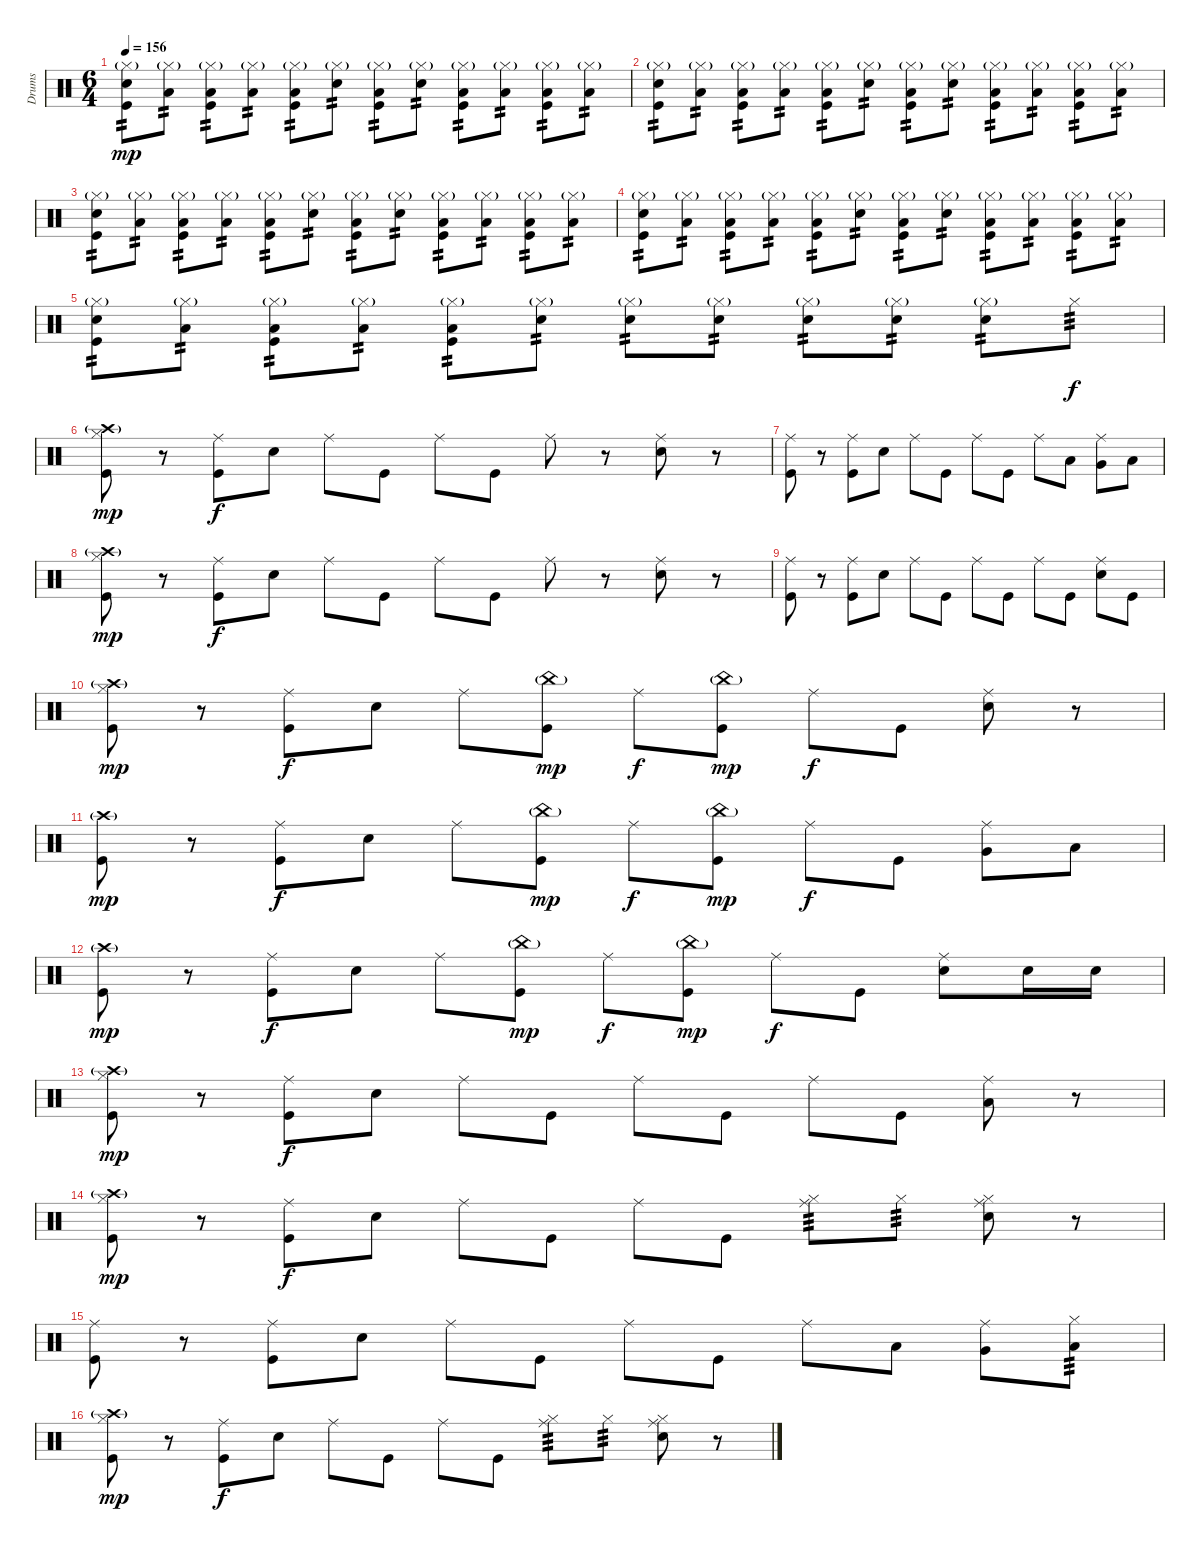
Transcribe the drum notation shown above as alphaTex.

\track ("Drums" "Drums") {instrument percussion}
\staff {score}
\articulation defaults
\ts (6 4)
\tempo 156
\clef neutral
\ks c
("Hi-Hat (closed)"{g} "Electric Snare (hit)" "Kick (hit)").8{tp 2 dy mp} ("Hi-Hat (closed)"{g} "Low Tom (hit)").8{tp 2} ("Hi-Hat (closed)"{g} "Low Tom (hit)" "Kick (hit)").8{tp 2} ("Hi-Hat (closed)"{g} "Low Tom (hit)").8{tp 2} ("Hi-Hat (closed)"{g} "Low Tom (hit)" "Kick (hit)").8{tp 2} ("Hi-Hat (closed)"{g} "Electric Snare (hit)").8{tp 2} ("Hi-Hat (closed)"{g} "Low Tom (hit)" "Kick (hit)").8{tp 2} ("Hi-Hat (closed)"{g} "Electric Snare (hit)").8{tp 2} ("Hi-Hat (closed)"{g} "Low Tom (hit)" "Kick (hit)").8{tp 2} ("Hi-Hat (closed)"{g} "Low Tom (hit)").8{tp 2} ("Hi-Hat (closed)"{g} "Low Tom (hit)" "Kick (hit)").8{tp 2} ("Hi-Hat (closed)"{g} "Low Tom (hit)").8{tp 2} |
("Hi-Hat (closed)"{g} "Electric Snare (hit)" "Kick (hit)").8{tp 2} ("Hi-Hat (closed)"{g} "Low Tom (hit)").8{tp 2} ("Hi-Hat (closed)"{g} "Low Tom (hit)" "Kick (hit)").8{tp 2} ("Hi-Hat (closed)"{g} "Low Tom (hit)").8{tp 2} ("Hi-Hat (closed)"{g} "Low Tom (hit)" "Kick (hit)").8{tp 2} ("Hi-Hat (closed)"{g} "Electric Snare (hit)").8{tp 2} ("Hi-Hat (closed)"{g} "Low Tom (hit)" "Kick (hit)").8{tp 2} ("Hi-Hat (closed)"{g} "Electric Snare (hit)").8{tp 2} ("Hi-Hat (closed)"{g} "Low Tom (hit)" "Kick (hit)").8{tp 2} ("Hi-Hat (closed)"{g} "Low Tom (hit)").8{tp 2} ("Hi-Hat (closed)"{g} "Low Tom (hit)" "Kick (hit)").8{tp 2} ("Hi-Hat (closed)"{g} "Low Tom (hit)").8{tp 2} |
("Hi-Hat (closed)"{g} "Electric Snare (hit)" "Kick (hit)").8{tp 2} ("Hi-Hat (closed)"{g} "Low Tom (hit)").8{tp 2} ("Hi-Hat (closed)"{g} "Low Tom (hit)" "Kick (hit)").8{tp 2} ("Hi-Hat (closed)"{g} "Low Tom (hit)").8{tp 2} ("Hi-Hat (closed)"{g} "Low Tom (hit)" "Kick (hit)").8{tp 2} ("Hi-Hat (closed)"{g} "Electric Snare (hit)").8{tp 2} ("Hi-Hat (closed)"{g} "Low Tom (hit)" "Kick (hit)").8{tp 2} ("Hi-Hat (closed)"{g} "Electric Snare (hit)").8{tp 2} ("Hi-Hat (closed)"{g} "Low Tom (hit)" "Kick (hit)").8{tp 2} ("Hi-Hat (closed)"{g} "Low Tom (hit)").8{tp 2} ("Hi-Hat (closed)"{g} "Low Tom (hit)" "Kick (hit)").8{tp 2} ("Hi-Hat (closed)"{g} "Low Tom (hit)").8{tp 2} |
("Hi-Hat (closed)"{g} "Electric Snare (hit)" "Kick (hit)").8{tp 2} ("Hi-Hat (closed)"{g} "Low Tom (hit)").8{tp 2} ("Hi-Hat (closed)"{g} "Low Tom (hit)" "Kick (hit)").8{tp 2} ("Hi-Hat (closed)"{g} "Low Tom (hit)").8{tp 2} ("Hi-Hat (closed)"{g} "Low Tom (hit)" "Kick (hit)").8{tp 2} ("Hi-Hat (closed)"{g} "Electric Snare (hit)").8{tp 2} ("Hi-Hat (closed)"{g} "Low Tom (hit)" "Kick (hit)").8{tp 2} ("Hi-Hat (closed)"{g} "Electric Snare (hit)").8{tp 2} ("Hi-Hat (closed)"{g} "Low Tom (hit)" "Kick (hit)").8{tp 2} ("Hi-Hat (closed)"{g} "Low Tom (hit)").8{tp 2} ("Hi-Hat (closed)"{g} "Low Tom (hit)" "Kick (hit)").8{tp 2} ("Hi-Hat (closed)"{g} "Low Tom (hit)").8{tp 2} |
("Hi-Hat (closed)"{g} "Electric Snare (hit)" "Kick (hit)").8{tp 2} ("Hi-Hat (closed)"{g} "Low Tom (hit)").8{tp 2} ("Hi-Hat (closed)"{g} "Low Tom (hit)" "Kick (hit)").8{tp 2} ("Hi-Hat (closed)"{g} "Low Tom (hit)").8{tp 2} ("Hi-Hat (closed)"{g} "Low Tom (hit)" "Kick (hit)").8{tp 2} ("Hi-Hat (closed)"{g} "Electric Snare (hit)").8{tp 2} ("Hi-Hat (closed)"{g} "Electric Snare (hit)").8{tp 2} ("Hi-Hat (closed)"{g} "Electric Snare (hit)").8{tp 2} ("Hi-Hat (closed)"{g} "Electric Snare (hit)").8{tp 2} ("Hi-Hat (closed)"{g} "Electric Snare (hit)").8{tp 2} ("Hi-Hat (closed)"{g} "Electric Snare (hit)").8{tp 2} "Hi-Hat (closed)".8{tp 3 dy f} |
("Hi-Hat (closed)" "Crash high (hit)"{g} "Kick (hit)").8{dy mp} r.8 ("Ride (middle)" "Kick (hit)").8{dy f} "Electric Snare (hit)".8 "Ride (middle)".8 "Kick (hit)".8 "Ride (middle)".8 "Kick (hit)".8 "Ride (middle)".8 r.8 ("Ride (middle)" "Electric Snare (hit)").8 r.8 |
("Ride (middle)" "Kick (hit)").8 r.8 ("Ride (middle)" "Kick (hit)").8 "Electric Snare (hit)".8 "Ride (middle)".8 "Kick (hit)".8 "Ride (middle)".8 "Kick (hit)".8 "Ride (middle)".8 "Low Tom (hit)".8 ("Ride (middle)" "Very Low Tom (hit)").8 "Low Floor Tom (hit)".8 |
("Hi-Hat (closed)" "Crash high (hit)"{g} "Kick (hit)").8{dy mp} r.8 ("Ride (middle)" "Kick (hit)").8{dy f} "Electric Snare (hit)".8 "Ride (middle)".8 "Kick (hit)".8 "Ride (middle)".8 "Kick (hit)".8 "Ride (middle)".8 r.8 ("Ride (middle)" "Electric Snare (hit)").8 r.8 |
("Ride (middle)" "Kick (hit)").8 r.8 ("Ride (middle)" "Kick (hit)").8 "Electric Snare (hit)".8 "Ride (middle)".8 "Kick (hit)".8 "Ride (middle)".8 "Kick (hit)".8 "Ride (middle)".8 "Kick (hit)".8 ("Ride (middle)" "Electric Snare (hit)").8 "Kick (hit)".8 |
("Hi-Hat (closed)" "Crash high (hit)"{g} "Kick (hit)").8{dy mp} r.8 ("Ride (middle)" "Kick (hit)").8{dy f} "Electric Snare (hit)".8 "Ride (middle)".8 ("China (hit)"{g} "Kick (hit)").8{dy mp} "Ride (middle)".8{dy f} ("China (hit)"{g} "Kick (hit)").8{dy mp} "Ride (middle)".8{dy f} "Kick (hit)".8 ("Ride (middle)" "Electric Snare (hit)").8 r.8 |
("Crash high (hit)"{g} "Kick (hit)").8{dy mp} r.8 ("Ride (middle)" "Kick (hit)").8{dy f} "Electric Snare (hit)".8 "Ride (middle)".8 ("China (hit)"{g} "Kick (hit)").8{dy mp} "Ride (middle)".8{dy f} ("China (hit)"{g} "Kick (hit)").8{dy mp} "Ride (middle)".8{dy f} "Kick (hit)".8 ("Ride (middle)" "Very Low Tom (hit)").8 "Low Floor Tom (hit)".8 |
("Crash high (hit)"{g} "Kick (hit)").8{dy mp} r.8 ("Ride (middle)" "Kick (hit)").8{dy f} "Electric Snare (hit)".8 "Ride (middle)".8 ("China (hit)"{g} "Kick (hit)").8{dy mp} "Ride (middle)".8{dy f} ("China (hit)"{g} "Kick (hit)").8{dy mp} "Ride (middle)".8{dy f} "Kick (hit)".8 ("Ride (middle)" "Electric Snare (hit)").8 "Electric Snare (hit)".16 "Electric Snare (hit)".16 |
("Hi-Hat (closed)" "Crash high (hit)"{g} "Kick (hit)").8{dy mp} r.8 ("Ride (middle)" "Kick (hit)").8{dy f} "Electric Snare (hit)".8 "Ride (middle)".8 "Kick (hit)".8 "Ride (middle)".8 "Kick (hit)".8 "Ride (middle)".8 "Kick (hit)".8 ("Ride (middle)" "Low Floor Tom (hit)").8 r.8 |
("Hi-Hat (closed)" "Crash high (hit)"{g} "Kick (hit)").8{dy mp} r.8 ("Ride (middle)" "Kick (hit)").8{dy f} "Electric Snare (hit)".8 "Ride (middle)".8 "Kick (hit)".8 "Ride (middle)".8 "Kick (hit)".8 ("Ride (middle)" "Hi-Hat (closed)").8{tp 3} "Hi-Hat (closed)".8{tp 3} ("Ride (middle)" "Hi-Hat (closed)" "Electric Snare (hit)").8 r.8 |
("Ride (middle)" "Kick (hit)").8 r.8 ("Ride (middle)" "Kick (hit)").8 "Electric Snare (hit)".8 "Ride (middle)".8 "Kick (hit)".8 "Ride (middle)".8 "Kick (hit)".8 "Ride (middle)".8 "Low Tom (hit)".8 ("Ride (middle)" "Very Low Tom (hit)").8 ("Hi-Hat (closed)" "Low Floor Tom (hit)").8{tp 3} |
("Hi-Hat (closed)" "Crash high (hit)"{g} "Kick (hit)").8{dy mp} r.8 ("Ride (middle)" "Kick (hit)").8{dy f} "Electric Snare (hit)".8 "Ride (middle)".8 "Kick (hit)".8 "Ride (middle)".8 "Kick (hit)".8 ("Ride (middle)" "Hi-Hat (closed)").8{tp 3} "Hi-Hat (closed)".8{tp 3} ("Ride (middle)" "Hi-Hat (closed)" "Electric Snare (hit)").8 r.8
